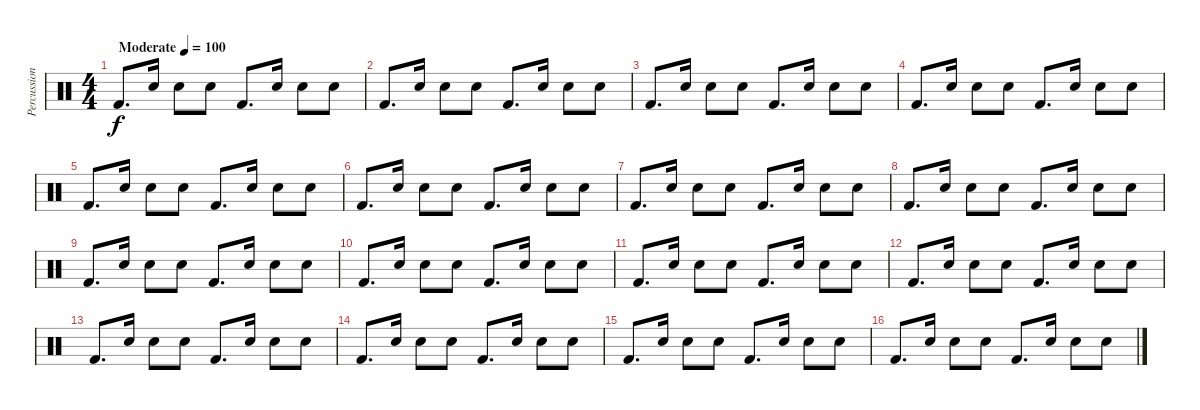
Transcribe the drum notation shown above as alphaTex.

\track ("Percussion" "Percussion") {instrument percussion}
\staff
\articulation defaults
\ts (4 4)
\tempo (100 "Moderate")
\clef neutral
\ks c "Kick (hit) 2".8{d dy f} "Hand Clap (hit)".16 "Hand Clap (hit)".8 "Hand Clap (hit)".8 "Kick (hit) 2".8{d} "Hand Clap (hit)".16 "Hand Clap (hit)".8 "Hand Clap (hit)".8
|
"Kick (hit) 2".8{d} "Hand Clap (hit)".16 "Hand Clap (hit)".8 "Hand Clap (hit)".8 "Kick (hit) 2".8{d} "Hand Clap (hit)".16 "Hand Clap (hit)".8 "Hand Clap (hit)".8 |
"Kick (hit) 2".8{d} "Hand Clap (hit)".16 "Hand Clap (hit)".8 "Hand Clap (hit)".8 "Kick (hit) 2".8{d} "Hand Clap (hit)".16 "Hand Clap (hit)".8 "Hand Clap (hit)".8 |
"Kick (hit) 2".8{d} "Hand Clap (hit)".16 "Hand Clap (hit)".8 "Hand Clap (hit)".8 "Kick (hit) 2".8{d} "Hand Clap (hit)".16 "Hand Clap (hit)".8 "Hand Clap (hit)".8 |
"Kick (hit) 2".8{d} "Hand Clap (hit)".16 "Hand Clap (hit)".8 "Hand Clap (hit)".8 "Kick (hit) 2".8{d} "Hand Clap (hit)".16 "Hand Clap (hit)".8 "Hand Clap (hit)".8 |
"Kick (hit) 2".8{d} "Hand Clap (hit)".16 "Hand Clap (hit)".8 "Hand Clap (hit)".8 "Kick (hit) 2".8{d} "Hand Clap (hit)".16 "Hand Clap (hit)".8 "Hand Clap (hit)".8 |
"Kick (hit) 2".8{d} "Hand Clap (hit)".16 "Hand Clap (hit)".8 "Hand Clap (hit)".8 "Kick (hit) 2".8{d} "Hand Clap (hit)".16 "Hand Clap (hit)".8 "Hand Clap (hit)".8 |
"Kick (hit) 2".8{d} "Hand Clap (hit)".16 "Hand Clap (hit)".8 "Hand Clap (hit)".8 "Kick (hit) 2".8{d} "Hand Clap (hit)".16 "Hand Clap (hit)".8 "Hand Clap (hit)".8 |
"Kick (hit) 2".8{d} "Hand Clap (hit)".16 "Hand Clap (hit)".8 "Hand Clap (hit)".8 "Kick (hit) 2".8{d} "Hand Clap (hit)".16 "Hand Clap (hit)".8 "Hand Clap (hit)".8 |
"Kick (hit) 2".8{d} "Hand Clap (hit)".16 "Hand Clap (hit)".8 "Hand Clap (hit)".8 "Kick (hit) 2".8{d} "Hand Clap (hit)".16 "Hand Clap (hit)".8 "Hand Clap (hit)".8 |
"Kick (hit) 2".8{d} "Hand Clap (hit)".16 "Hand Clap (hit)".8 "Hand Clap (hit)".8 "Kick (hit) 2".8{d} "Hand Clap (hit)".16 "Hand Clap (hit)".8 "Hand Clap (hit)".8 |
"Kick (hit) 2".8{d} "Hand Clap (hit)".16 "Hand Clap (hit)".8 "Hand Clap (hit)".8 "Kick (hit) 2".8{d} "Hand Clap (hit)".16 "Hand Clap (hit)".8 "Hand Clap (hit)".8 |
"Kick (hit) 2".8{d} "Hand Clap (hit)".16 "Hand Clap (hit)".8 "Hand Clap (hit)".8 "Kick (hit) 2".8{d} "Hand Clap (hit)".16 "Hand Clap (hit)".8 "Hand Clap (hit)".8 |
"Kick (hit) 2".8{d} "Hand Clap (hit)".16 "Hand Clap (hit)".8 "Hand Clap (hit)".8 "Kick (hit) 2".8{d} "Hand Clap (hit)".16 "Hand Clap (hit)".8 "Hand Clap (hit)".8 |
"Kick (hit) 2".8{d} "Hand Clap (hit)".16 "Hand Clap (hit)".8 "Hand Clap (hit)".8 "Kick (hit) 2".8{d} "Hand Clap (hit)".16 "Hand Clap (hit)".8 "Hand Clap (hit)".8 |
"Kick (hit) 2".8{d} "Hand Clap (hit)".16 "Hand Clap (hit)".8 "Hand Clap (hit)".8 "Kick (hit) 2".8{d} "Hand Clap (hit)".16 "Hand Clap (hit)".8 "Hand Clap (hit)".8
